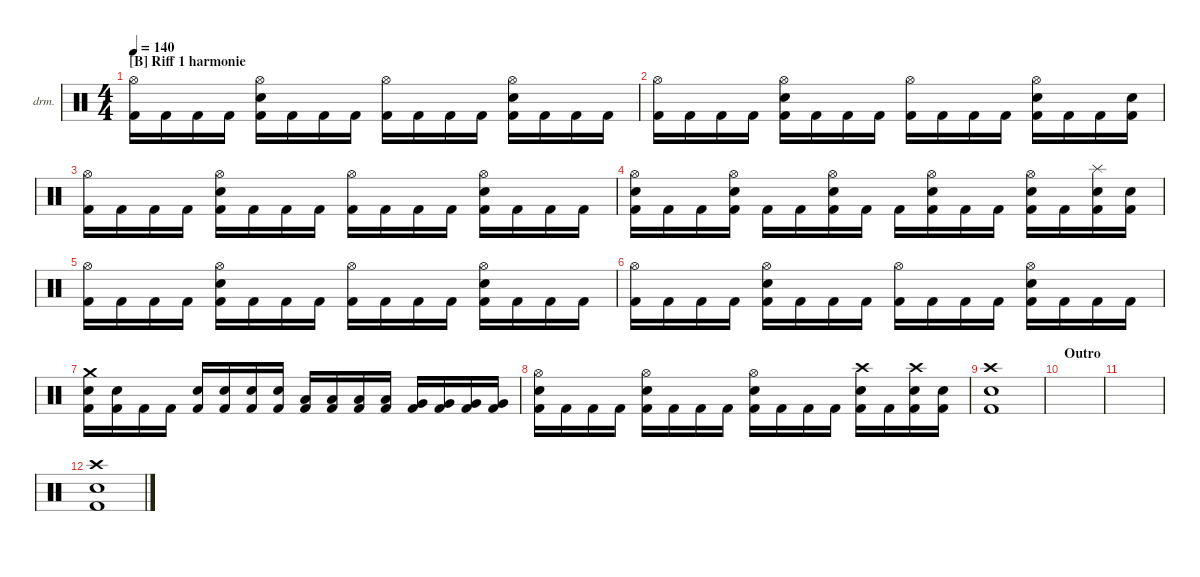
\defaultSystemsLayout 4
\hideDynamics
\bracketExtendMode nobrackets
\firstSystemTrackNameOrientation horizontal
\otherSystemsTrackNameOrientation horizontal
\track ("Drumkit" "drm.") {instrument percussion}
\staff {score}
\articulation defaults
\ts (4 4)
\section ("B" "Riff 1 harmonie")
\tempo 140
\clef neutral
\ks c
("Hi-Hat (open)" "Kick (hit) 2").16{dy ff} "Kick (hit) 2".16 "Kick (hit) 2".16 "Kick (hit) 2".16 ("Hi-Hat (open)" "Snare (hit) 2" "Kick (hit) 2").16 "Kick (hit) 2".16 "Kick (hit) 2".16 "Kick (hit) 2".16 ("Hi-Hat (open)" "Kick (hit) 2").16 "Kick (hit) 2".16 "Kick (hit) 2".16 "Kick (hit) 2".16 ("Hi-Hat (open)" "Snare (hit) 2" "Kick (hit) 2").16 "Kick (hit) 2".16 "Kick (hit) 2".16 "Kick (hit) 2".16 |
("Hi-Hat (open)" "Kick (hit) 2").16 "Kick (hit) 2".16 "Kick (hit) 2".16 "Kick (hit) 2".16 ("Hi-Hat (open)" "Snare (hit) 2" "Kick (hit) 2").16 "Kick (hit) 2".16 "Kick (hit) 2".16 "Kick (hit) 2".16 ("Hi-Hat (open)" "Kick (hit) 2").16 "Kick (hit) 2".16 "Kick (hit) 2".16 "Kick (hit) 2".16 ("Hi-Hat (open)" "Snare (hit) 2" "Kick (hit) 2").16 "Kick (hit) 2".16 "Kick (hit) 2".16 ("Snare (hit) 2" "Kick (hit) 2").16 |
("Hi-Hat (open)" "Kick (hit) 2").16 "Kick (hit) 2".16 "Kick (hit) 2".16 "Kick (hit) 2".16 ("Hi-Hat (open)" "Snare (hit) 2" "Kick (hit) 2").16 "Kick (hit) 2".16 "Kick (hit) 2".16 "Kick (hit) 2".16 ("Hi-Hat (open)" "Kick (hit) 2").16 "Kick (hit) 2".16 "Kick (hit) 2".16 "Kick (hit) 2".16 ("Hi-Hat (open)" "Snare (hit) 2" "Kick (hit) 2").16 "Kick (hit) 2".16 "Kick (hit) 2".16 "Kick (hit) 2".16 |
("Hi-Hat (open)" "Snare (hit) 2" "Kick (hit) 2").16 "Kick (hit) 2".16 "Kick (hit) 2".16 ("Hi-Hat (open)" "Snare (hit) 2" "Kick (hit) 2").16 "Kick (hit) 2".16 "Kick (hit) 2".16 ("Hi-Hat (open)" "Snare (hit) 2" "Kick (hit) 2").16 "Kick (hit) 2".16 "Kick (hit) 2".16 ("Hi-Hat (open)" "Snare (hit) 2" "Kick (hit) 2").16 "Kick (hit) 2".16 "Kick (hit) 2".16 ("Hi-Hat (open)" "Snare (hit) 2" "Kick (hit) 2").16 "Kick (hit) 2".16 ("Splash (hit)" "Snare (hit) 2" "Kick (hit) 2").16 ("Snare (hit) 2" "Kick (hit) 2").16 |
("Hi-Hat (open)" "Kick (hit) 2").16 "Kick (hit) 2".16 "Kick (hit) 2".16 "Kick (hit) 2".16 ("Hi-Hat (open)" "Snare (hit) 2" "Kick (hit) 2").16 "Kick (hit) 2".16 "Kick (hit) 2".16 "Kick (hit) 2".16 ("Hi-Hat (open)" "Kick (hit) 2").16 "Kick (hit) 2".16 "Kick (hit) 2".16 "Kick (hit) 2".16 ("Hi-Hat (open)" "Snare (hit) 2" "Kick (hit) 2").16 "Kick (hit) 2".16 "Kick (hit) 2".16 "Kick (hit) 2".16 |
("Hi-Hat (open)" "Kick (hit) 2").16 "Kick (hit) 2".16 "Kick (hit) 2".16 "Kick (hit) 2".16 ("Hi-Hat (open)" "Snare (hit) 2" "Kick (hit) 2").16 "Kick (hit) 2".16 "Kick (hit) 2".16 "Kick (hit) 2".16 ("Hi-Hat (open)" "Kick (hit) 2").16 "Kick (hit) 2".16 "Kick (hit) 2".16 "Kick (hit) 2".16 ("Hi-Hat (open)" "Snare (hit) 2" "Kick (hit) 2").16 "Kick (hit) 2".16 "Kick (hit) 2".16 "Kick (hit) 2".16 |
("Crash medium (hit)" "Snare (hit) 2" "Kick (hit) 2").16{dy mf} ("Snare (hit) 2" "Kick (hit) 2").16 "Kick (hit) 2".16 "Kick (hit) 2".16 ("Snare (hit) 2" "Kick (hit) 2").16 ("Snare (hit) 2" "Kick (hit) 2").16 ("Snare (hit) 2" "Kick (hit) 2").16 ("Snare (hit) 2" "Kick (hit) 2").16 ("Low Tom (hit)" "Kick (hit) 2").16 ("Low Tom (hit)" "Kick (hit) 2").16 ("Low Tom (hit)" "Kick (hit) 2").16 ("Low Tom (hit)" "Kick (hit) 2").16 ("Very Low Tom (hit)" "Kick (hit) 2").16 ("Very Low Tom (hit)" "Kick (hit) 2").16 ("Very Low Tom (hit)" "Kick (hit) 2").16 ("Very Low Tom (hit)" "Kick (hit) 2").16 |
("Hi-Hat (open)" "Snare (hit) 2" "Kick (hit) 2").16 "Kick (hit) 2".16 "Kick (hit) 2".16 "Kick (hit) 2".16 ("Hi-Hat (open)" "Snare (hit) 2" "Kick (hit) 2").16 "Kick (hit) 2".16 "Kick (hit) 2".16 "Kick (hit) 2".16 ("Hi-Hat (open)" "Snare (hit) 2" "Kick (hit) 2").16 "Kick (hit) 2".16 "Kick (hit) 2".16 "Kick (hit) 2".16 ("Crash high (hit)" "Snare (hit) 2" "Kick (hit) 2").16 "Kick (hit) 2".16 ("Crash high (hit)" "Snare (hit) 2" "Kick (hit) 2").16 ("Snare (hit) 2" "Kick (hit) 2").16 |
("Crash high (hit)" "Kick (hit) 2" "Snare (hit) 2").1 |
\section ("" "Outro")
|
|
("Crash high (hit)" "Kick (hit) 2" "Snare (hit) 2").1
